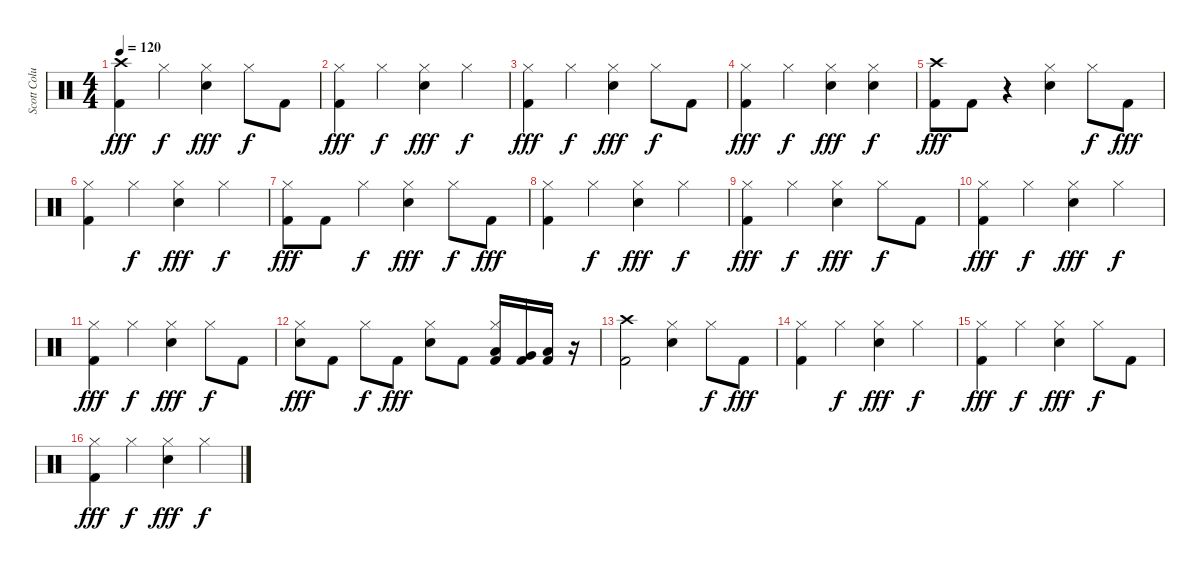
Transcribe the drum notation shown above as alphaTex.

\track ("Scott Columbus" "Scott Colu") {instrument percussion}
\staff {score}
\articulation defaults
\ts (4 4)
\tempo 120
\clef neutral
\ks c
("Kick (hit) 2" "Crash high (hit)").4{dy fff} "Hi-Hat (closed)".4{dy f} ("Electric Snare (hit)" "Hi-Hat (closed)").4{dy fff} "Hi-Hat (closed)".8{dy f} "Kick (hit) 2".8 |
("Kick (hit) 2" "Hi-Hat (closed)").4{dy fff} "Hi-Hat (closed)".4{dy f} ("Electric Snare (hit)" "Hi-Hat (closed)").4{dy fff} "Hi-Hat (closed)".4{dy f} |
("Kick (hit) 2" "Hi-Hat (closed)").4{dy fff} "Hi-Hat (closed)".4{dy f} ("Electric Snare (hit)" "Hi-Hat (closed)").4{dy fff} "Hi-Hat (closed)".8{dy f} "Kick (hit) 2".8 |
("Kick (hit) 2" "Hi-Hat (closed)").4{dy fff} "Hi-Hat (closed)".4{dy f} ("Electric Snare (hit)" "Hi-Hat (closed)").4{dy fff} ("Electric Snare (hit)" "Hi-Hat (closed)").4{dy f} |
("Kick (hit) 2" "Crash high (hit)").8{dy fff} "Kick (hit) 2".8 r.4 ("Electric Snare (hit)" "Hi-Hat (closed)").4 "Hi-Hat (closed)".8{dy f} "Kick (hit) 2".8{dy fff} |
("Kick (hit) 2" "Hi-Hat (closed)").4 "Hi-Hat (closed)".4{dy f} ("Electric Snare (hit)" "Hi-Hat (closed)").4{dy fff} "Hi-Hat (closed)".4{dy f} |
("Kick (hit) 2" "Hi-Hat (closed)").8{dy fff} "Kick (hit) 2".8 "Hi-Hat (closed)".4{dy f} ("Electric Snare (hit)" "Hi-Hat (closed)").4{dy fff} "Hi-Hat (closed)".8{dy f} "Kick (hit) 2".8{dy fff} |
("Kick (hit) 2" "Hi-Hat (closed)").4 "Hi-Hat (closed)".4{dy f} ("Electric Snare (hit)" "Hi-Hat (closed)").4{dy fff} "Hi-Hat (closed)".4{dy f} |
("Kick (hit) 2" "Hi-Hat (closed)").4{dy fff} "Hi-Hat (closed)".4{dy f} ("Electric Snare (hit)" "Hi-Hat (closed)").4{dy fff} "Hi-Hat (closed)".8{dy f} "Kick (hit) 2".8 |
("Kick (hit) 2" "Hi-Hat (closed)").4{dy fff} "Hi-Hat (closed)".4{dy f} ("Electric Snare (hit)" "Hi-Hat (closed)").4{dy fff} "Hi-Hat (closed)".4{dy f} |
("Kick (hit) 2" "Hi-Hat (closed)").4{dy fff} "Hi-Hat (closed)".4{dy f} ("Electric Snare (hit)" "Hi-Hat (closed)").4{dy fff} "Hi-Hat (closed)".8{dy f} "Kick (hit) 2".8 |
("Electric Snare (hit)" "Hi-Hat (closed)").8{dy fff} "Kick (hit) 2".8 "Hi-Hat (closed)".8{dy f} "Kick (hit) 2".8{dy fff} ("Electric Snare (hit)" "Hi-Hat (closed)").8 "Kick (hit) 2".8 ("Low Tom (hit)" "Kick (hit) 2" "Hi-Hat (closed)").16 ("Very Low Tom (hit)" "Kick (hit) 2").16 ("Low Floor Tom (hit)" "Kick (hit) 2").16 r.16 |
("Kick (hit) 2" "Crash high (hit)").2 ("Electric Snare (hit)" "Hi-Hat (closed)").4 "Hi-Hat (closed)".8{dy f} "Kick (hit) 2".8{dy fff} |
("Kick (hit) 2" "Hi-Hat (closed)").4 "Hi-Hat (closed)".4{dy f} ("Electric Snare (hit)" "Hi-Hat (closed)").4{dy fff} "Hi-Hat (closed)".4{dy f} |
("Kick (hit) 2" "Hi-Hat (closed)").4{dy fff} "Hi-Hat (closed)".4{dy f} ("Electric Snare (hit)" "Hi-Hat (closed)").4{dy fff} "Hi-Hat (closed)".8{dy f} "Kick (hit) 2".8 |
("Kick (hit) 2" "Hi-Hat (closed)").4{dy fff} "Hi-Hat (closed)".4{dy f} ("Electric Snare (hit)" "Hi-Hat (closed)").4{dy fff} "Hi-Hat (closed)".4{dy f}
